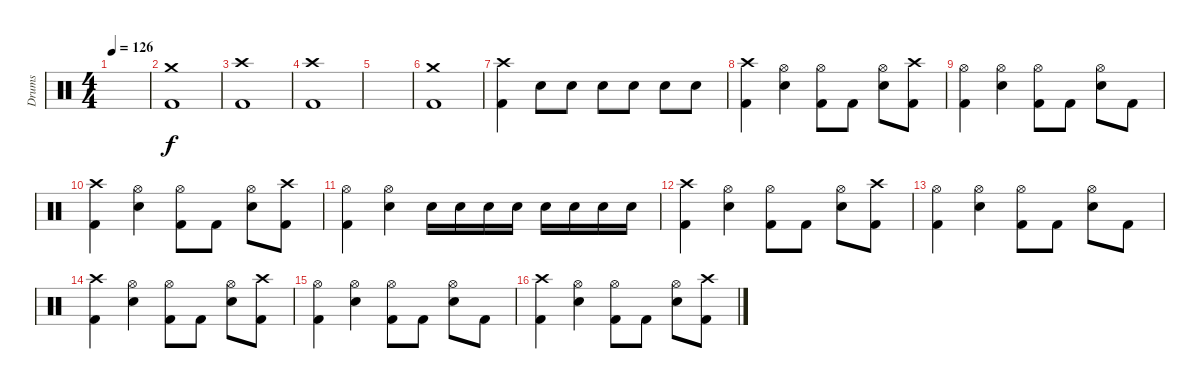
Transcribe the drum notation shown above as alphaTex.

\track ("Drums" "Drums") {instrument percussion}
\staff {score}
\articulation defaults
\ts (4 4)
\tempo 126
\clef neutral
\ks c
|
("Crash medium (hit)" "Kick (hit) 2").1 |
("Crash high (hit)" "Kick (hit) 2").1 |
("Crash high (hit)" "Kick (hit) 2").1 |
|
("Crash medium (hit)" "Kick (hit) 2").1 |
("Crash high (hit)" "Kick (hit) 2").4 "Snare (hit) 2".8 "Snare (hit) 2".8 "Snare (hit) 2".8 "Snare (hit) 2".8 "Snare (hit) 2".8 "Snare (hit) 2".8 |
("Crash high (hit)" "Kick (hit) 2").4 ("Hi-Hat (open)" "Snare (hit) 2").4 ("Hi-Hat (open)" "Kick (hit) 2").8 "Kick (hit) 2".8 ("Hi-Hat (open)" "Snare (hit) 2").8 ("Crash high (hit)" "Kick (hit) 2").8 |
("Hi-Hat (open)" "Kick (hit) 2").4 ("Hi-Hat (open)" "Snare (hit) 2").4 ("Hi-Hat (open)" "Kick (hit) 2").8 "Kick (hit) 2".8 ("Hi-Hat (open)" "Snare (hit) 2").8 "Kick (hit) 2".8 |
("Crash high (hit)" "Kick (hit) 2").4 ("Hi-Hat (open)" "Snare (hit) 2").4 ("Hi-Hat (open)" "Kick (hit) 2").8 "Kick (hit) 2".8 ("Hi-Hat (open)" "Snare (hit) 2").8 ("Crash high (hit)" "Kick (hit) 2").8 |
("Hi-Hat (open)" "Kick (hit) 2").4 ("Hi-Hat (open)" "Snare (hit) 2").4 "Snare (hit) 2".16 "Snare (hit) 2".16 "Snare (hit) 2".16 "Snare (hit) 2".16 "Snare (hit) 2".16 "Snare (hit) 2".16 "Snare (hit) 2".16 "Snare (hit) 2".16 |
("Crash high (hit)" "Kick (hit) 2").4 ("Hi-Hat (open)" "Snare (hit) 2").4 ("Hi-Hat (open)" "Kick (hit) 2").8 "Kick (hit) 2".8 ("Hi-Hat (open)" "Snare (hit) 2").8 ("Crash high (hit)" "Kick (hit) 2").8 |
("Hi-Hat (open)" "Kick (hit) 2").4 ("Hi-Hat (open)" "Snare (hit) 2").4 ("Hi-Hat (open)" "Kick (hit) 2").8 "Kick (hit) 2".8 ("Hi-Hat (open)" "Snare (hit) 2").8 "Kick (hit) 2".8 |
("Crash high (hit)" "Kick (hit) 2").4 ("Hi-Hat (open)" "Snare (hit) 2").4 ("Hi-Hat (open)" "Kick (hit) 2").8 "Kick (hit) 2".8 ("Hi-Hat (open)" "Snare (hit) 2").8 ("Crash high (hit)" "Kick (hit) 2").8 |
("Hi-Hat (open)" "Kick (hit) 2").4 ("Hi-Hat (open)" "Snare (hit) 2").4 ("Hi-Hat (open)" "Kick (hit) 2").8 "Kick (hit) 2".8 ("Hi-Hat (open)" "Snare (hit) 2").8 "Kick (hit) 2".8 |
("Crash high (hit)" "Kick (hit) 2").4 ("Hi-Hat (open)" "Snare (hit) 2").4 ("Hi-Hat (open)" "Kick (hit) 2").8 "Kick (hit) 2".8 ("Hi-Hat (open)" "Snare (hit) 2").8 ("Crash high (hit)" "Kick (hit) 2").8
